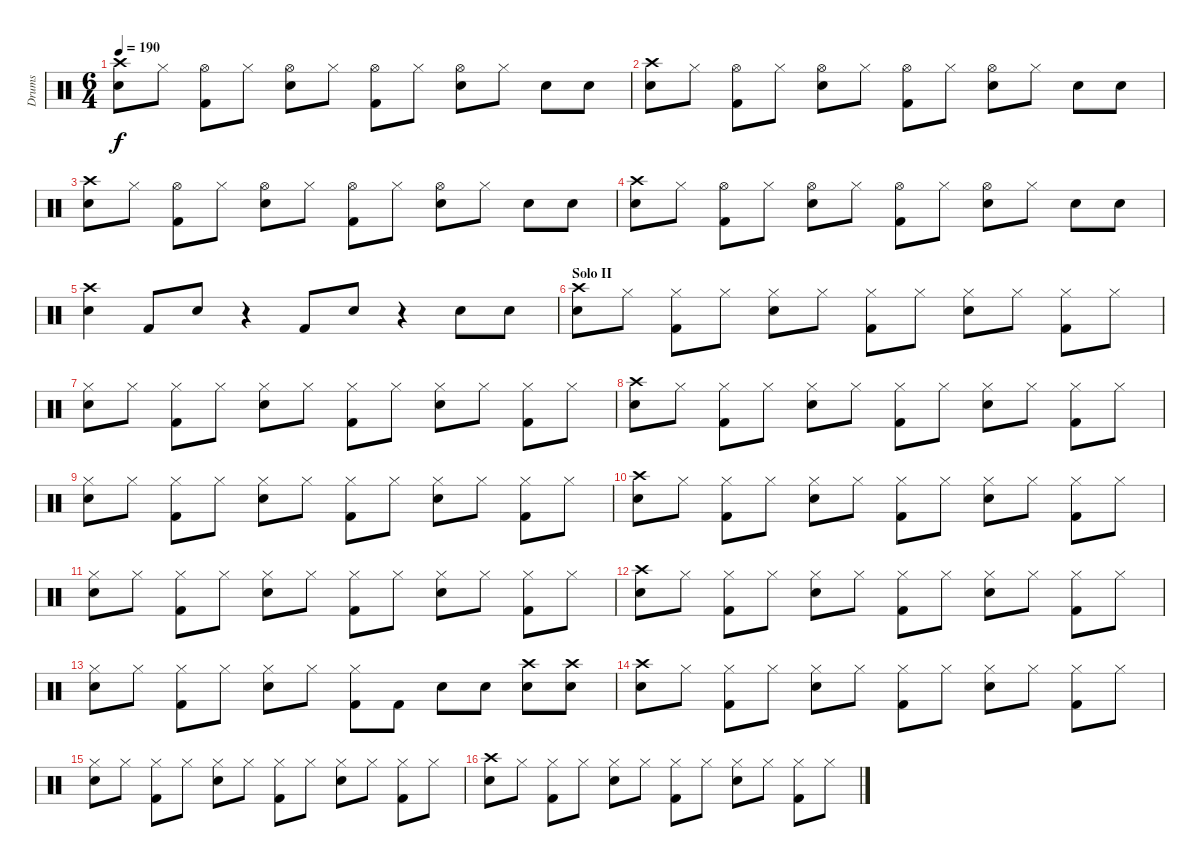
\track ("Drums" "Drums") {instrument percussion}
\staff {score}
\articulation defaults
\ts (6 4)
\tempo 190
\clef neutral
\ks c
("Crash high (hit)" "Snare (hit) 2").8{dy f} "Hi-Hat (closed)".8 ("Hi-Hat (open)" "Kick (hit) 2").8 "Hi-Hat (closed)".8 ("Hi-Hat (open)" "Snare (hit) 2").8 "Hi-Hat (closed)".8 ("Hi-Hat (open)" "Kick (hit) 2").8 "Hi-Hat (closed)".8 ("Hi-Hat (open)" "Snare (hit) 2").8 "Hi-Hat (closed)".8 "Snare (hit) 2".8 "Snare (hit) 2".8 |
("Crash high (hit)" "Snare (hit) 2").8 "Hi-Hat (closed)".8 ("Hi-Hat (open)" "Kick (hit) 2").8 "Hi-Hat (closed)".8 ("Hi-Hat (open)" "Snare (hit) 2").8 "Hi-Hat (closed)".8 ("Hi-Hat (open)" "Kick (hit) 2").8 "Hi-Hat (closed)".8 ("Hi-Hat (open)" "Snare (hit) 2").8 "Hi-Hat (closed)".8 "Snare (hit) 2".8 "Snare (hit) 2".8 |
("Crash high (hit)" "Snare (hit) 2").8 "Hi-Hat (closed)".8 ("Hi-Hat (open)" "Kick (hit) 2").8 "Hi-Hat (closed)".8 ("Hi-Hat (open)" "Snare (hit) 2").8 "Hi-Hat (closed)".8 ("Hi-Hat (open)" "Kick (hit) 2").8 "Hi-Hat (closed)".8 ("Hi-Hat (open)" "Snare (hit) 2").8 "Hi-Hat (closed)".8 "Snare (hit) 2".8 "Snare (hit) 2".8 |
("Crash high (hit)" "Snare (hit) 2").8 "Hi-Hat (closed)".8 ("Hi-Hat (open)" "Kick (hit) 2").8 "Hi-Hat (closed)".8 ("Hi-Hat (open)" "Snare (hit) 2").8 "Hi-Hat (closed)".8 ("Hi-Hat (open)" "Kick (hit) 2").8 "Hi-Hat (closed)".8 ("Hi-Hat (open)" "Snare (hit) 2").8 "Hi-Hat (closed)".8 "Snare (hit) 2".8 "Snare (hit) 2".8 |
("Crash high (hit)" "Snare (hit) 2").4 "Kick (hit) 2".8 "Snare (hit) 2".8 r.4 "Kick (hit) 2".8 "Snare (hit) 2".8 r.4 "Snare (hit) 2".8 "Snare (hit) 2".8 |
\section ("" "Solo II")
("Crash high (hit)" "Snare (hit) 2").8 "Hi-Hat (closed)".8 ("Hi-Hat (closed)" "Kick (hit) 2").8 "Hi-Hat (closed)".8 ("Hi-Hat (closed)" "Snare (hit) 2").8 "Hi-Hat (closed)".8 ("Hi-Hat (closed)" "Kick (hit) 2").8 "Hi-Hat (closed)".8 ("Hi-Hat (closed)" "Snare (hit) 2").8 "Hi-Hat (closed)".8 ("Hi-Hat (closed)" "Kick (hit) 2").8 "Hi-Hat (closed)".8 |
("Hi-Hat (closed)" "Snare (hit) 2").8 "Hi-Hat (closed)".8 ("Hi-Hat (closed)" "Kick (hit) 2").8 "Hi-Hat (closed)".8 ("Hi-Hat (closed)" "Snare (hit) 2").8 "Hi-Hat (closed)".8 ("Hi-Hat (closed)" "Kick (hit) 2").8 "Hi-Hat (closed)".8 ("Hi-Hat (closed)" "Snare (hit) 2").8 "Hi-Hat (closed)".8 ("Hi-Hat (closed)" "Kick (hit) 2").8 "Hi-Hat (closed)".8 |
("Crash high (hit)" "Snare (hit) 2").8 "Hi-Hat (closed)".8 ("Hi-Hat (closed)" "Kick (hit) 2").8 "Hi-Hat (closed)".8 ("Hi-Hat (closed)" "Snare (hit) 2").8 "Hi-Hat (closed)".8 ("Hi-Hat (closed)" "Kick (hit) 2").8 "Hi-Hat (closed)".8 ("Hi-Hat (closed)" "Snare (hit) 2").8 "Hi-Hat (closed)".8 ("Hi-Hat (closed)" "Kick (hit) 2").8 "Hi-Hat (closed)".8 |
("Hi-Hat (closed)" "Snare (hit) 2").8 "Hi-Hat (closed)".8 ("Hi-Hat (closed)" "Kick (hit) 2").8 "Hi-Hat (closed)".8 ("Hi-Hat (closed)" "Snare (hit) 2").8 "Hi-Hat (closed)".8 ("Hi-Hat (closed)" "Kick (hit) 2").8 "Hi-Hat (closed)".8 ("Hi-Hat (closed)" "Snare (hit) 2").8 "Hi-Hat (closed)".8 ("Hi-Hat (closed)" "Kick (hit) 2").8 "Hi-Hat (closed)".8 |
("Crash high (hit)" "Snare (hit) 2").8 "Hi-Hat (closed)".8 ("Hi-Hat (closed)" "Kick (hit) 2").8 "Hi-Hat (closed)".8 ("Hi-Hat (closed)" "Snare (hit) 2").8 "Hi-Hat (closed)".8 ("Hi-Hat (closed)" "Kick (hit) 2").8 "Hi-Hat (closed)".8 ("Hi-Hat (closed)" "Snare (hit) 2").8 "Hi-Hat (closed)".8 ("Hi-Hat (closed)" "Kick (hit) 2").8 "Hi-Hat (closed)".8 |
("Hi-Hat (closed)" "Snare (hit) 2").8 "Hi-Hat (closed)".8 ("Hi-Hat (closed)" "Kick (hit) 2").8 "Hi-Hat (closed)".8 ("Hi-Hat (closed)" "Snare (hit) 2").8 "Hi-Hat (closed)".8 ("Hi-Hat (closed)" "Kick (hit) 2").8 "Hi-Hat (closed)".8 ("Hi-Hat (closed)" "Snare (hit) 2").8 "Hi-Hat (closed)".8 ("Hi-Hat (closed)" "Kick (hit) 2").8 "Hi-Hat (closed)".8 |
("Crash high (hit)" "Snare (hit) 2").8 "Hi-Hat (closed)".8 ("Hi-Hat (closed)" "Kick (hit) 2").8 "Hi-Hat (closed)".8 ("Hi-Hat (closed)" "Snare (hit) 2").8 "Hi-Hat (closed)".8 ("Hi-Hat (closed)" "Kick (hit) 2").8 "Hi-Hat (closed)".8 ("Hi-Hat (closed)" "Snare (hit) 2").8 "Hi-Hat (closed)".8 ("Hi-Hat (closed)" "Kick (hit) 2").8 "Hi-Hat (closed)".8 |
("Hi-Hat (closed)" "Snare (hit) 2").8 "Hi-Hat (closed)".8 ("Hi-Hat (closed)" "Kick (hit) 2").8 "Hi-Hat (closed)".8 ("Hi-Hat (closed)" "Snare (hit) 2").8 "Hi-Hat (closed)".8 ("Hi-Hat (closed)" "Kick (hit) 2").8 "Kick (hit) 2".8 "Snare (hit) 2".8 "Snare (hit) 2".8 ("Crash high (hit)" "Electric Snare (hit)").8 ("Crash high (hit)" "Electric Snare (hit)").8 |
("Crash high (hit)" "Snare (hit) 2").8 "Hi-Hat (closed)".8 ("Hi-Hat (closed)" "Kick (hit) 2").8 "Hi-Hat (closed)".8 ("Hi-Hat (closed)" "Snare (hit) 2").8 "Hi-Hat (closed)".8 ("Hi-Hat (closed)" "Kick (hit) 2").8 "Hi-Hat (closed)".8 ("Hi-Hat (closed)" "Snare (hit) 2").8 "Hi-Hat (closed)".8 ("Hi-Hat (closed)" "Kick (hit) 2").8 "Hi-Hat (closed)".8 |
("Hi-Hat (closed)" "Snare (hit) 2").8 "Hi-Hat (closed)".8 ("Hi-Hat (closed)" "Kick (hit) 2").8 "Hi-Hat (closed)".8 ("Hi-Hat (closed)" "Snare (hit) 2").8 "Hi-Hat (closed)".8 ("Hi-Hat (closed)" "Kick (hit) 2").8 "Hi-Hat (closed)".8 ("Hi-Hat (closed)" "Snare (hit) 2").8 "Hi-Hat (closed)".8 ("Hi-Hat (closed)" "Kick (hit) 2").8 "Hi-Hat (closed)".8 |
("Crash high (hit)" "Snare (hit) 2").8 "Hi-Hat (closed)".8 ("Hi-Hat (closed)" "Kick (hit) 2").8 "Hi-Hat (closed)".8 ("Hi-Hat (closed)" "Snare (hit) 2").8 "Hi-Hat (closed)".8 ("Hi-Hat (closed)" "Kick (hit) 2").8 "Hi-Hat (closed)".8 ("Hi-Hat (closed)" "Snare (hit) 2").8 "Hi-Hat (closed)".8 ("Hi-Hat (closed)" "Kick (hit) 2").8 "Hi-Hat (closed)".8
